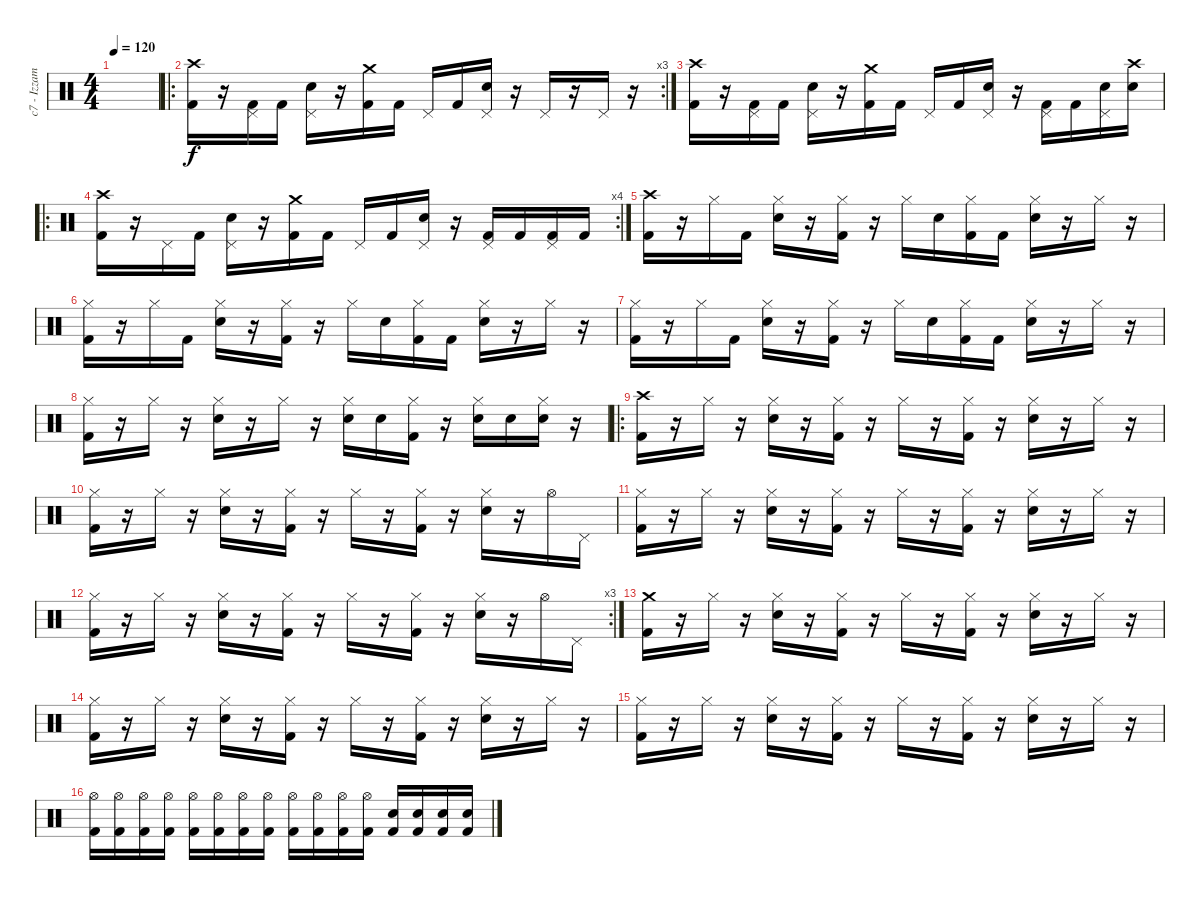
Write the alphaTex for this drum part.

\track ("c7 - Izzam - Drums" "c7 - Izzam") {instrument percussion}
\staff {score}
\articulation defaults
\ts (4 4)
\tempo 120
\clef neutral
\ks c
|
\ro
\rc 3
("Crash high (hit)" "Kick (hit) 2").16 r.16 ("Pedal Hi-Hat (hit)" "Kick (hit) 2").16 "Kick (hit) 2".16 ("Pedal Hi-Hat (hit)" "Electric Snare (hit)").16 r.16 ("Crash medium (hit)" "Kick (hit) 2").16 "Kick (hit) 2".16 "Pedal Hi-Hat (hit)".16 "Kick (hit) 2".16 ("Pedal Hi-Hat (hit)" "Electric Snare (hit)").16 r.16 "Pedal Hi-Hat (hit)".16 r.16 "Pedal Hi-Hat (hit)".16 r.16 |
("Crash high (hit)" "Kick (hit) 2").16 r.16 ("Pedal Hi-Hat (hit)" "Kick (hit) 2").16 "Kick (hit) 2".16 ("Pedal Hi-Hat (hit)" "Electric Snare (hit)").16 r.16 ("Crash medium (hit)" "Kick (hit) 2").16 "Kick (hit) 2".16 "Pedal Hi-Hat (hit)".16 "Kick (hit) 2".16 ("Pedal Hi-Hat (hit)" "Electric Snare (hit)").16 r.16 ("Pedal Hi-Hat (hit)" "Kick (hit) 2").16 "Kick (hit) 2".16 ("Pedal Hi-Hat (hit)" "Electric Snare (hit)").16 ("Crash high (hit)" "Electric Snare (hit)").16 |
\ro
\rc 4
("Crash high (hit)" "Kick (hit) 2").16 r.16 "Pedal Hi-Hat (hit)".16 "Kick (hit) 2".16 ("Pedal Hi-Hat (hit)" "Electric Snare (hit)").16 r.16 ("Crash medium (hit)" "Kick (hit) 2").16 "Kick (hit) 2".16 "Pedal Hi-Hat (hit)".16 "Kick (hit) 2".16 ("Pedal Hi-Hat (hit)" "Electric Snare (hit)").16 r.16 ("Pedal Hi-Hat (hit)" "Kick (hit) 2").16 "Kick (hit) 2".16 ("Pedal Hi-Hat (hit)" "Kick (hit) 2").16 "Kick (hit) 2".16 |
("Crash high (hit)" "Kick (hit) 2").16 r.16 "Hi-Hat (closed)".16 "Kick (hit) 2".16 ("Hi-Hat (closed)" "Electric Snare (hit)").16 r.16 ("Hi-Hat (closed)" "Kick (hit) 2").16 r.16 "Hi-Hat (closed)".16 "Electric Snare (hit)".16 ("Hi-Hat (closed)" "Kick (hit) 2").16 "Kick (hit) 2".16 ("Hi-Hat (closed)" "Electric Snare (hit)").16 r.16 "Hi-Hat (closed)".16 r.16 |
("Hi-Hat (closed)" "Kick (hit) 2").16 r.16 "Hi-Hat (closed)".16 "Kick (hit) 2".16 ("Hi-Hat (closed)" "Electric Snare (hit)").16 r.16 ("Hi-Hat (closed)" "Kick (hit) 2").16 r.16 "Hi-Hat (closed)".16 "Electric Snare (hit)".16 ("Hi-Hat (closed)" "Kick (hit) 2").16 "Kick (hit) 2".16 ("Hi-Hat (closed)" "Electric Snare (hit)").16 r.16 "Hi-Hat (closed)".16 r.16 |
("Hi-Hat (closed)" "Kick (hit) 2").16 r.16 "Hi-Hat (closed)".16 "Kick (hit) 2".16 ("Hi-Hat (closed)" "Electric Snare (hit)").16 r.16 ("Hi-Hat (closed)" "Kick (hit) 2").16 r.16 "Hi-Hat (closed)".16 "Electric Snare (hit)".16 ("Hi-Hat (closed)" "Kick (hit) 2").16 "Kick (hit) 2".16 ("Hi-Hat (closed)" "Electric Snare (hit)").16 r.16 "Hi-Hat (closed)".16 r.16 |
("Hi-Hat (closed)" "Kick (hit) 2").16 r.16 "Hi-Hat (closed)".16 r.16 ("Hi-Hat (closed)" "Electric Snare (hit)").16 r.16 "Hi-Hat (closed)".16 r.16 ("Hi-Hat (closed)" "Electric Snare (hit)").16 "Electric Snare (hit)".16 ("Hi-Hat (closed)" "Kick (hit) 2").16 r.16 ("Hi-Hat (closed)" "Electric Snare (hit)").16 "Electric Snare (hit)".16 ("Hi-Hat (closed)" "Electric Snare (hit)").16 r.16 |
\ro
("Crash high (hit)" "Kick (hit) 2").16 r.16 "Hi-Hat (closed)".16 r.16 ("Hi-Hat (closed)" "Electric Snare (hit)").16 r.16 ("Hi-Hat (closed)" "Kick (hit) 2").16 r.16 "Hi-Hat (closed)".16 r.16 ("Hi-Hat (closed)" "Kick (hit) 2").16 r.16 ("Hi-Hat (closed)" "Electric Snare (hit)").16 r.16 "Hi-Hat (closed)".16 r.16 |
("Hi-Hat (closed)" "Kick (hit) 2").16 r.16 "Hi-Hat (closed)".16 r.16 ("Hi-Hat (closed)" "Electric Snare (hit)").16 r.16 ("Hi-Hat (closed)" "Kick (hit) 2").16 r.16 "Hi-Hat (closed)".16 r.16 ("Hi-Hat (closed)" "Kick (hit) 2").16 r.16 ("Hi-Hat (closed)" "Electric Snare (hit)").16 r.16 "Hi-Hat (open)".16 "Pedal Hi-Hat (hit)".16 |
("Hi-Hat (closed)" "Kick (hit) 2").16 r.16 "Hi-Hat (closed)".16 r.16 ("Hi-Hat (closed)" "Electric Snare (hit)").16 r.16 ("Hi-Hat (closed)" "Kick (hit) 2").16 r.16 "Hi-Hat (closed)".16 r.16 ("Hi-Hat (closed)" "Kick (hit) 2").16 r.16 ("Hi-Hat (closed)" "Electric Snare (hit)").16 r.16 "Hi-Hat (closed)".16 r.16 |
\rc 3
("Hi-Hat (closed)" "Kick (hit) 2").16 r.16 "Hi-Hat (closed)".16 r.16 ("Hi-Hat (closed)" "Electric Snare (hit)").16 r.16 ("Hi-Hat (closed)" "Kick (hit) 2").16 r.16 "Hi-Hat (closed)".16 r.16 ("Hi-Hat (closed)" "Kick (hit) 2").16 r.16 ("Hi-Hat (closed)" "Electric Snare (hit)").16 r.16 "Hi-Hat (open)".16 "Pedal Hi-Hat (hit)".16 |
("Crash medium (hit)" "Kick (hit) 2").16 r.16 "Hi-Hat (closed)".16 r.16 ("Hi-Hat (closed)" "Electric Snare (hit)").16 r.16 ("Hi-Hat (closed)" "Kick (hit) 2").16 r.16 "Hi-Hat (closed)".16 r.16 ("Hi-Hat (closed)" "Kick (hit) 2").16 r.16 ("Hi-Hat (closed)" "Electric Snare (hit)").16 r.16 "Hi-Hat (closed)".16 r.16 |
("Hi-Hat (closed)" "Kick (hit) 2").16 r.16 "Hi-Hat (closed)".16 r.16 ("Hi-Hat (closed)" "Electric Snare (hit)").16 r.16 ("Hi-Hat (closed)" "Kick (hit) 2").16 r.16 "Hi-Hat (closed)".16 r.16 ("Hi-Hat (closed)" "Kick (hit) 2").16 r.16 ("Hi-Hat (closed)" "Electric Snare (hit)").16 r.16 "Hi-Hat (closed)".16 r.16 |
("Hi-Hat (closed)" "Kick (hit) 2").16 r.16 "Hi-Hat (closed)".16 r.16 ("Hi-Hat (closed)" "Electric Snare (hit)").16 r.16 ("Hi-Hat (closed)" "Kick (hit) 2").16 r.16 "Hi-Hat (closed)".16 r.16 ("Hi-Hat (closed)" "Kick (hit) 2").16 r.16 ("Hi-Hat (closed)" "Electric Snare (hit)").16 r.16 "Hi-Hat (closed)".16 r.16 |
("Hi-Hat (open)" "Kick (hit) 2").16 ("Hi-Hat (open)" "Kick (hit) 2").16 ("Hi-Hat (open)" "Kick (hit) 2").16 ("Hi-Hat (open)" "Kick (hit) 2").16 ("Hi-Hat (open)" "Kick (hit) 2").16 ("Hi-Hat (open)" "Kick (hit) 2").16 ("Hi-Hat (open)" "Kick (hit) 2").16 ("Hi-Hat (open)" "Kick (hit) 2").16 ("Hi-Hat (open)" "Kick (hit) 2").16 ("Hi-Hat (open)" "Kick (hit) 2").16 ("Hi-Hat (open)" "Kick (hit) 2").16 ("Hi-Hat (open)" "Kick (hit) 2").16 ("Electric Snare (hit)" "Kick (hit) 2").16 ("Electric Snare (hit)" "Kick (hit) 2").16 ("Electric Snare (hit)" "Kick (hit) 2").16 ("Electric Snare (hit)" "Kick (hit) 2").16
